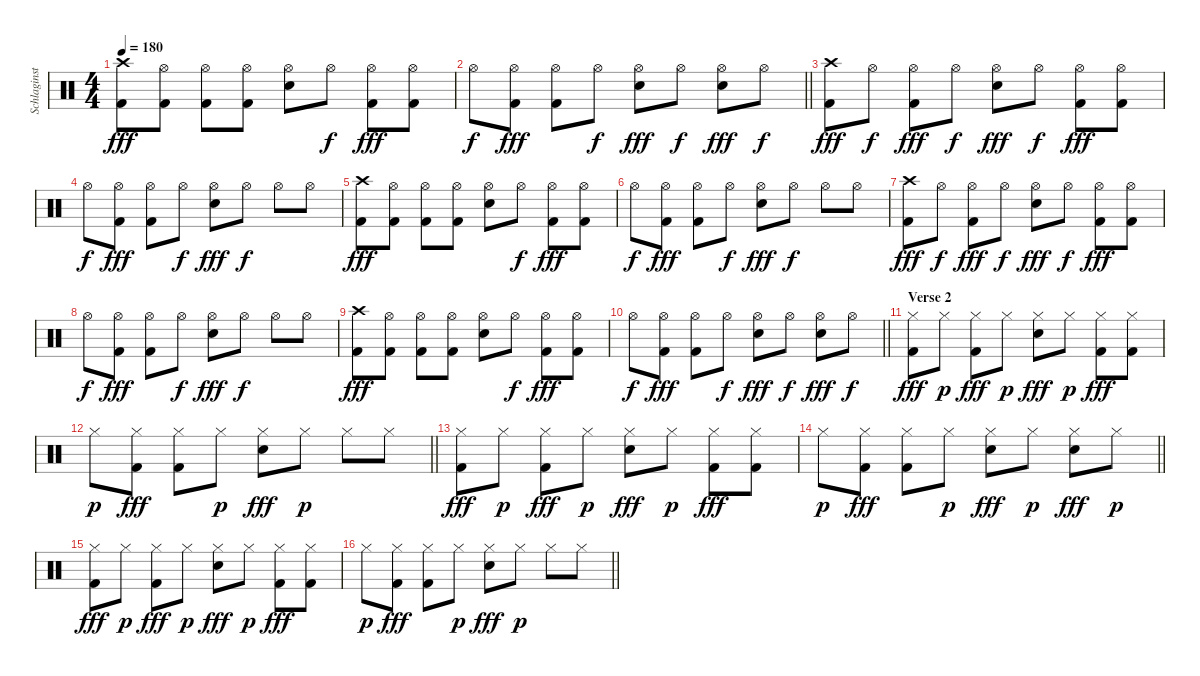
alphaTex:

\track ("Schlaginstrumente - Auswahl" "Schlaginst") {instrument percussion}
\staff {score}
\articulation defaults
\ts (4 4)
\tempo 180
\clef neutral
\ks c
("Crash high (hit)" "Kick (hit) 2").8{dy fff} ("Hi-Hat (open)" "Kick (hit) 2").8 ("Hi-Hat (open)" "Kick (hit) 2").8 ("Hi-Hat (open)" "Kick (hit) 2").8 ("Hi-Hat (open)" "Snare (hit) 2").8 "Hi-Hat (open)".8{dy f} ("Hi-Hat (open)" "Kick (hit) 2").8{dy fff} ("Hi-Hat (open)" "Kick (hit) 2").8 |
\barLineRight lightlight "Hi-Hat (open)".8{dy f}
("Hi-Hat (open)" "Kick (hit) 2").8{dy fff} ("Hi-Hat (open)" "Kick (hit) 2").8 "Hi-Hat (open)".8{dy f} ("Hi-Hat (open)" "Snare (hit) 2").8{dy fff} "Hi-Hat (open)".8{dy f} ("Hi-Hat (open)" "Snare (hit) 2").8{dy fff} "Hi-Hat (open)".8{dy f} |
("Crash high (hit)" "Kick (hit) 2").8{dy fff} "Hi-Hat (open)".8{dy f} ("Hi-Hat (open)" "Kick (hit) 2").8{dy fff} "Hi-Hat (open)".8{dy f} ("Hi-Hat (open)" "Snare (hit) 2").8{dy fff} "Hi-Hat (open)".8{dy f} ("Hi-Hat (open)" "Kick (hit) 2").8{dy fff} ("Hi-Hat (open)" "Kick (hit) 2").8 |
"Hi-Hat (open)".8{dy f} ("Hi-Hat (open)" "Kick (hit) 2").8{dy fff} ("Hi-Hat (open)" "Kick (hit) 2").8 "Hi-Hat (open)".8{dy f} ("Hi-Hat (open)" "Snare (hit) 2").8{dy fff} "Hi-Hat (open)".8{dy f} "Hi-Hat (open)".8 "Hi-Hat (open)".8 |
("Crash high (hit)" "Kick (hit) 2").8{dy fff} ("Hi-Hat (open)" "Kick (hit) 2").8 ("Hi-Hat (open)" "Kick (hit) 2").8 ("Hi-Hat (open)" "Kick (hit) 2").8 ("Hi-Hat (open)" "Snare (hit) 2").8 "Hi-Hat (open)".8{dy f} ("Hi-Hat (open)" "Kick (hit) 2").8{dy fff} ("Hi-Hat (open)" "Kick (hit) 2").8 |
"Hi-Hat (open)".8{dy f} ("Hi-Hat (open)" "Kick (hit) 2").8{dy fff} ("Hi-Hat (open)" "Kick (hit) 2").8 "Hi-Hat (open)".8{dy f} ("Hi-Hat (open)" "Snare (hit) 2").8{dy fff} "Hi-Hat (open)".8{dy f} "Hi-Hat (open)".8 "Hi-Hat (open)".8 |
("Crash high (hit)" "Kick (hit) 2").8{dy fff} "Hi-Hat (open)".8{dy f} ("Hi-Hat (open)" "Kick (hit) 2").8{dy fff} "Hi-Hat (open)".8{dy f} ("Hi-Hat (open)" "Snare (hit) 2").8{dy fff} "Hi-Hat (open)".8{dy f} ("Hi-Hat (open)" "Kick (hit) 2").8{dy fff} ("Hi-Hat (open)" "Kick (hit) 2").8 |
"Hi-Hat (open)".8{dy f} ("Hi-Hat (open)" "Kick (hit) 2").8{dy fff} ("Hi-Hat (open)" "Kick (hit) 2").8 "Hi-Hat (open)".8{dy f} ("Hi-Hat (open)" "Snare (hit) 2").8{dy fff} "Hi-Hat (open)".8{dy f} "Hi-Hat (open)".8 "Hi-Hat (open)".8 |
("Crash high (hit)" "Kick (hit) 2").8{dy fff} ("Hi-Hat (open)" "Kick (hit) 2").8 ("Hi-Hat (open)" "Kick (hit) 2").8 ("Hi-Hat (open)" "Kick (hit) 2").8 ("Hi-Hat (open)" "Snare (hit) 2").8 "Hi-Hat (open)".8{dy f} ("Hi-Hat (open)" "Kick (hit) 2").8{dy fff} ("Hi-Hat (open)" "Kick (hit) 2").8 |
\barLineRight lightlight "Hi-Hat (open)".8{dy f}
("Hi-Hat (open)" "Kick (hit) 2").8{dy fff} ("Hi-Hat (open)" "Kick (hit) 2").8 "Hi-Hat (open)".8{dy f} ("Hi-Hat (open)" "Snare (hit) 2").8{dy fff} "Hi-Hat (open)".8{dy f} ("Hi-Hat (open)" "Snare (hit) 2").8{dy fff} "Hi-Hat (open)".8{dy f} |
\section ("" "Verse 2")
("Hi-Hat (closed)" "Kick (hit) 2").8{dy fff} "Hi-Hat (closed)".8{dy p} ("Hi-Hat (closed)" "Kick (hit) 2").8{dy fff} "Hi-Hat (closed)".8{dy p} ("Hi-Hat (closed)" "Snare (hit) 2").8{dy fff} "Hi-Hat (closed)".8{dy p} ("Hi-Hat (closed)" "Kick (hit) 2").8{dy fff} ("Hi-Hat (closed)" "Kick (hit) 2").8 |
\barLineRight lightlight "Hi-Hat (closed)".8{dy p}
("Hi-Hat (closed)" "Kick (hit) 2").8{dy fff} ("Hi-Hat (closed)" "Kick (hit) 2").8 "Hi-Hat (closed)".8{dy p} ("Hi-Hat (closed)" "Snare (hit) 2").8{dy fff} "Hi-Hat (closed)".8{dy p} "Hi-Hat (closed)".8 "Hi-Hat (closed)".8 |
("Hi-Hat (closed)" "Kick (hit) 2").8{dy fff} "Hi-Hat (closed)".8{dy p} ("Hi-Hat (closed)" "Kick (hit) 2").8{dy fff} "Hi-Hat (closed)".8{dy p} ("Hi-Hat (closed)" "Snare (hit) 2").8{dy fff} "Hi-Hat (closed)".8{dy p} ("Hi-Hat (closed)" "Kick (hit) 2").8{dy fff} ("Hi-Hat (closed)" "Kick (hit) 2").8 |
\barLineRight lightlight "Hi-Hat (closed)".8{dy p}
("Hi-Hat (closed)" "Kick (hit) 2").8{dy fff} ("Hi-Hat (closed)" "Kick (hit) 2").8 "Hi-Hat (closed)".8{dy p} ("Hi-Hat (closed)" "Snare (hit) 2").8{dy fff} "Hi-Hat (closed)".8{dy p} ("Hi-Hat (closed)" "Snare (hit) 2").8{dy fff} "Hi-Hat (closed)".8{dy p} |
("Hi-Hat (closed)" "Kick (hit) 2").8{dy fff} "Hi-Hat (closed)".8{dy p} ("Hi-Hat (closed)" "Kick (hit) 2").8{dy fff} "Hi-Hat (closed)".8{dy p} ("Hi-Hat (closed)" "Snare (hit) 2").8{dy fff} "Hi-Hat (closed)".8{dy p} ("Hi-Hat (closed)" "Kick (hit) 2").8{dy fff} ("Hi-Hat (closed)" "Kick (hit) 2").8 |
\barLineRight lightlight "Hi-Hat (closed)".8{dy p}
("Hi-Hat (closed)" "Kick (hit) 2").8{dy fff} ("Hi-Hat (closed)" "Kick (hit) 2").8 "Hi-Hat (closed)".8{dy p} ("Hi-Hat (closed)" "Snare (hit) 2").8{dy fff} "Hi-Hat (closed)".8{dy p} "Hi-Hat (closed)".8 "Hi-Hat (closed)".8
